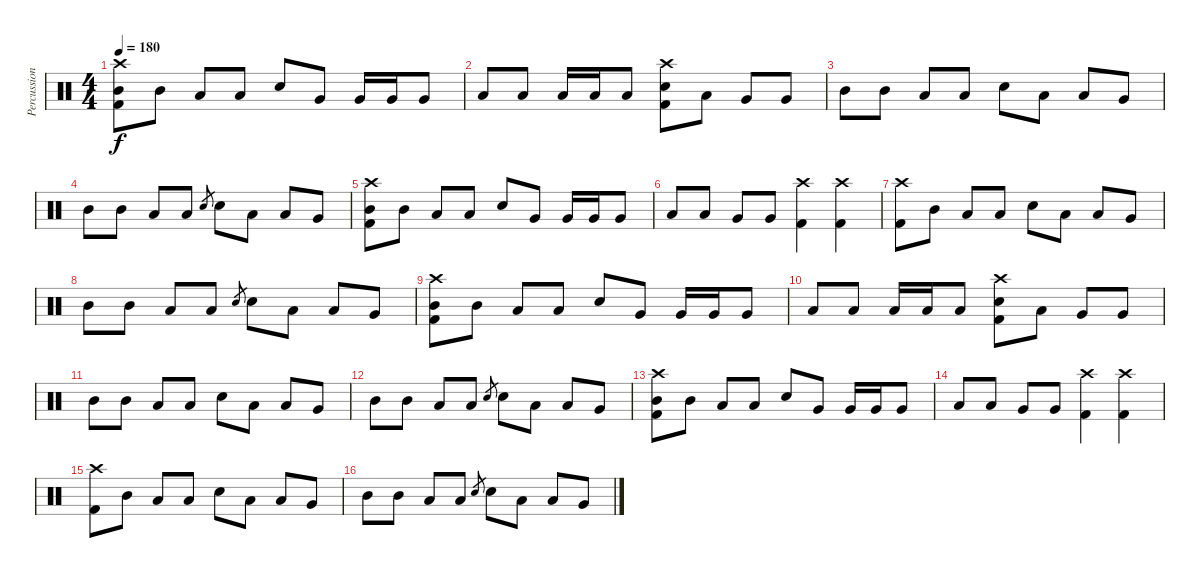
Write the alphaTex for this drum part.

\track ("Percussion" "Percussion") {instrument percussion}
\staff {score}
\articulation defaults
\ts (4 4)
\tempo 180
\clef neutral
\ks c
("Crash high (hit)" "Mid Tom (hit)" "Kick (hit) 2").8{dy f} "Mid Tom (hit)".8 "Low Tom (hit)".8 "Low Tom (hit)".8 "Electric Snare (hit)".8 "Very Low Tom (hit)".8 "Very Low Tom (hit)".16 "Very Low Tom (hit)".16 "Very Low Tom (hit)".8 |
"Low Tom (hit)".8 "Low Tom (hit)".8 "Low Tom (hit)".16 "Low Tom (hit)".16 "Low Tom (hit)".8 ("Crash high (hit)" "Electric Snare (hit)" "Kick (hit) 2").8 "Low Tom (hit)".8 "Very Low Tom (hit)".8 "Very Low Tom (hit)".8 |
"Mid Tom (hit)".8 "Mid Tom (hit)".8 "Low Tom (hit)".8 "Low Tom (hit)".8 "Electric Snare (hit)".8 "Low Tom (hit)".8 "Low Tom (hit)".8 "Very Low Tom (hit)".8 |
"Mid Tom (hit)".8 "Mid Tom (hit)".8 "Low Tom (hit)".8 "Low Tom (hit)".8 "Electric Snare (hit)".8{gr} "Electric Snare (hit)".8 "Low Tom (hit)".8 "Low Tom (hit)".8 "Very Low Tom (hit)".8 |
("Crash high (hit)" "Mid Tom (hit)" "Kick (hit) 2").8 "Mid Tom (hit)".8 "Low Tom (hit)".8 "Low Tom (hit)".8 "Electric Snare (hit)".8 "Very Low Tom (hit)".8 "Very Low Tom (hit)".16 "Very Low Tom (hit)".16 "Very Low Tom (hit)".8 |
"Low Tom (hit)".8 "Low Tom (hit)".8 "Very Low Tom (hit)".8 "Very Low Tom (hit)".8 ("Crash high (hit)" "Kick (hit) 2").4 ("Crash high (hit)" "Kick (hit) 2").4 |
("Crash high (hit)" "Kick (hit) 2").8 "Mid Tom (hit)".8 "Low Tom (hit)".8 "Low Tom (hit)".8 "Electric Snare (hit)".8 "Low Tom (hit)".8 "Low Tom (hit)".8 "Very Low Tom (hit)".8 |
"Mid Tom (hit)".8 "Mid Tom (hit)".8 "Low Tom (hit)".8 "Low Tom (hit)".8 "Electric Snare (hit)".8{gr} "Electric Snare (hit)".8 "Low Tom (hit)".8 "Low Tom (hit)".8 "Very Low Tom (hit)".8 |
("Crash high (hit)" "Mid Tom (hit)" "Kick (hit) 2").8 "Mid Tom (hit)".8 "Low Tom (hit)".8 "Low Tom (hit)".8 "Electric Snare (hit)".8 "Very Low Tom (hit)".8 "Very Low Tom (hit)".16 "Very Low Tom (hit)".16 "Very Low Tom (hit)".8 |
"Low Tom (hit)".8 "Low Tom (hit)".8 "Low Tom (hit)".16 "Low Tom (hit)".16 "Low Tom (hit)".8 ("Crash high (hit)" "Electric Snare (hit)" "Kick (hit) 2").8 "Low Tom (hit)".8 "Very Low Tom (hit)".8 "Very Low Tom (hit)".8 |
"Mid Tom (hit)".8 "Mid Tom (hit)".8 "Low Tom (hit)".8 "Low Tom (hit)".8 "Electric Snare (hit)".8 "Low Tom (hit)".8 "Low Tom (hit)".8 "Very Low Tom (hit)".8 |
"Mid Tom (hit)".8 "Mid Tom (hit)".8 "Low Tom (hit)".8 "Low Tom (hit)".8 "Electric Snare (hit)".8{gr} "Electric Snare (hit)".8 "Low Tom (hit)".8 "Low Tom (hit)".8 "Very Low Tom (hit)".8 |
("Crash high (hit)" "Mid Tom (hit)" "Kick (hit) 2").8 "Mid Tom (hit)".8 "Low Tom (hit)".8 "Low Tom (hit)".8 "Electric Snare (hit)".8 "Very Low Tom (hit)".8 "Very Low Tom (hit)".16 "Very Low Tom (hit)".16 "Very Low Tom (hit)".8 |
"Low Tom (hit)".8 "Low Tom (hit)".8 "Very Low Tom (hit)".8 "Very Low Tom (hit)".8 ("Crash high (hit)" "Kick (hit) 2").4 ("Crash high (hit)" "Kick (hit) 2").4 |
("Crash high (hit)" "Kick (hit) 2").8 "Mid Tom (hit)".8 "Low Tom (hit)".8 "Low Tom (hit)".8 "Electric Snare (hit)".8 "Low Tom (hit)".8 "Low Tom (hit)".8 "Very Low Tom (hit)".8 |
"Mid Tom (hit)".8 "Mid Tom (hit)".8 "Low Tom (hit)".8 "Low Tom (hit)".8 "Electric Snare (hit)".8{gr} "Electric Snare (hit)".8 "Low Tom (hit)".8 "Low Tom (hit)".8 "Very Low Tom (hit)".8
